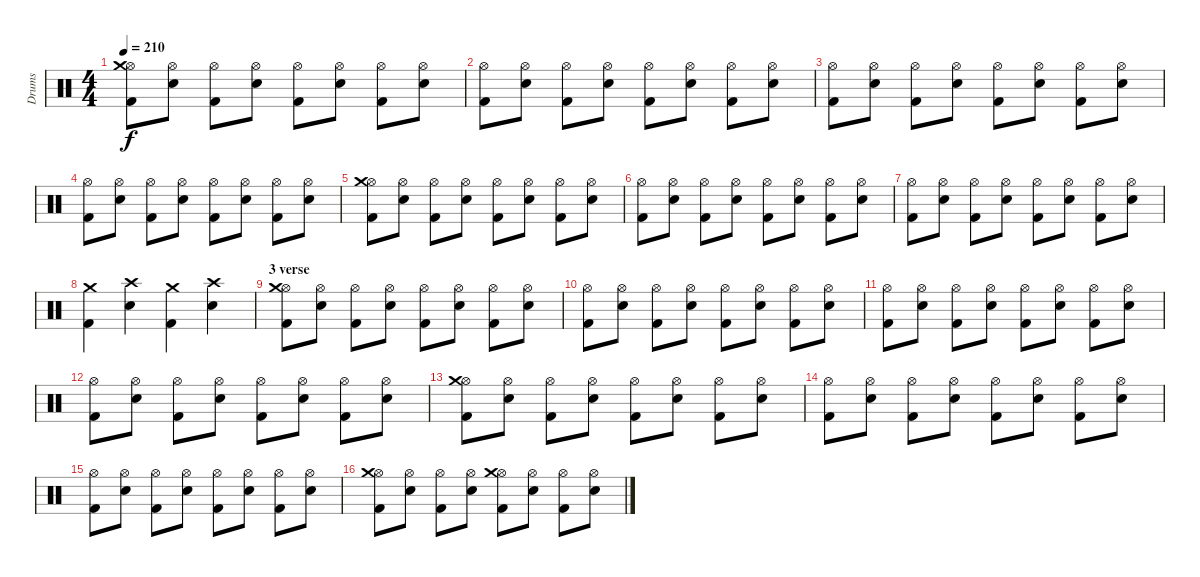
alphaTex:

\track ("Drums" "Drums") {instrument percussion}
\staff {score}
\articulation defaults
\ts (4 4)
\tempo 210
\clef neutral
\ks c
("Hi-Hat (open)" "Crash medium (hit)" "Kick (hit) 2").8{dy f} ("Hi-Hat (open)" "Electric Snare (hit)").8 ("Hi-Hat (open)" "Kick (hit) 2").8 ("Hi-Hat (open)" "Electric Snare (hit)").8 ("Hi-Hat (open)" "Kick (hit) 2").8 ("Hi-Hat (open)" "Electric Snare (hit)").8 ("Hi-Hat (open)" "Kick (hit) 2").8 ("Hi-Hat (open)" "Electric Snare (hit)").8 |
("Hi-Hat (open)" "Kick (hit) 2").8 ("Hi-Hat (open)" "Electric Snare (hit)").8 ("Hi-Hat (open)" "Kick (hit) 2").8 ("Hi-Hat (open)" "Electric Snare (hit)").8 ("Hi-Hat (open)" "Kick (hit) 2").8 ("Hi-Hat (open)" "Electric Snare (hit)").8 ("Hi-Hat (open)" "Kick (hit) 2").8 ("Hi-Hat (open)" "Electric Snare (hit)").8 |
("Hi-Hat (open)" "Kick (hit) 2").8 ("Hi-Hat (open)" "Electric Snare (hit)").8 ("Hi-Hat (open)" "Kick (hit) 2").8 ("Hi-Hat (open)" "Electric Snare (hit)").8 ("Hi-Hat (open)" "Kick (hit) 2").8 ("Hi-Hat (open)" "Electric Snare (hit)").8 ("Hi-Hat (open)" "Kick (hit) 2").8 ("Hi-Hat (open)" "Electric Snare (hit)").8 |
("Hi-Hat (open)" "Kick (hit) 2").8 ("Hi-Hat (open)" "Electric Snare (hit)").8 ("Hi-Hat (open)" "Kick (hit) 2").8 ("Hi-Hat (open)" "Electric Snare (hit)").8 ("Hi-Hat (open)" "Kick (hit) 2").8 ("Hi-Hat (open)" "Electric Snare (hit)").8 ("Hi-Hat (open)" "Kick (hit) 2").8 ("Hi-Hat (open)" "Electric Snare (hit)").8 |
("Hi-Hat (open)" "Crash medium (hit)" "Kick (hit) 2").8 ("Hi-Hat (open)" "Electric Snare (hit)").8 ("Hi-Hat (open)" "Kick (hit) 2").8 ("Hi-Hat (open)" "Electric Snare (hit)").8 ("Hi-Hat (open)" "Kick (hit) 2").8 ("Hi-Hat (open)" "Electric Snare (hit)").8 ("Hi-Hat (open)" "Kick (hit) 2").8 ("Hi-Hat (open)" "Electric Snare (hit)").8 |
("Hi-Hat (open)" "Kick (hit) 2").8 ("Hi-Hat (open)" "Electric Snare (hit)").8 ("Hi-Hat (open)" "Kick (hit) 2").8 ("Hi-Hat (open)" "Electric Snare (hit)").8 ("Hi-Hat (open)" "Kick (hit) 2").8 ("Hi-Hat (open)" "Electric Snare (hit)").8 ("Hi-Hat (open)" "Kick (hit) 2").8 ("Hi-Hat (open)" "Electric Snare (hit)").8 |
("Hi-Hat (open)" "Kick (hit) 2").8 ("Hi-Hat (open)" "Electric Snare (hit)").8 ("Hi-Hat (open)" "Kick (hit) 2").8 ("Hi-Hat (open)" "Electric Snare (hit)").8 ("Hi-Hat (open)" "Kick (hit) 2").8 ("Hi-Hat (open)" "Electric Snare (hit)").8 ("Hi-Hat (open)" "Kick (hit) 2").8 ("Hi-Hat (open)" "Electric Snare (hit)").8 |
("Crash medium (hit)" "Kick (hit) 2").4 ("Crash high (hit)" "Electric Snare (hit)").4 ("Crash medium (hit)" "Kick (hit) 2").4 ("Crash high (hit)" "Electric Snare (hit)").4 |
\section ("" "3 verse")
("Hi-Hat (open)" "Crash medium (hit)" "Kick (hit) 2").8 ("Hi-Hat (open)" "Electric Snare (hit)").8 ("Hi-Hat (open)" "Kick (hit) 2").8 ("Hi-Hat (open)" "Electric Snare (hit)").8 ("Hi-Hat (open)" "Kick (hit) 2").8 ("Hi-Hat (open)" "Electric Snare (hit)").8 ("Hi-Hat (open)" "Kick (hit) 2").8 ("Hi-Hat (open)" "Electric Snare (hit)").8 |
("Hi-Hat (open)" "Kick (hit) 2").8 ("Hi-Hat (open)" "Electric Snare (hit)").8 ("Hi-Hat (open)" "Kick (hit) 2").8 ("Hi-Hat (open)" "Electric Snare (hit)").8 ("Hi-Hat (open)" "Kick (hit) 2").8 ("Hi-Hat (open)" "Electric Snare (hit)").8 ("Hi-Hat (open)" "Kick (hit) 2").8 ("Hi-Hat (open)" "Electric Snare (hit)").8 |
("Hi-Hat (open)" "Kick (hit) 2").8 ("Hi-Hat (open)" "Electric Snare (hit)").8 ("Hi-Hat (open)" "Kick (hit) 2").8 ("Hi-Hat (open)" "Electric Snare (hit)").8 ("Hi-Hat (open)" "Kick (hit) 2").8 ("Hi-Hat (open)" "Electric Snare (hit)").8 ("Hi-Hat (open)" "Kick (hit) 2").8 ("Hi-Hat (open)" "Electric Snare (hit)").8 |
("Hi-Hat (open)" "Kick (hit) 2").8 ("Hi-Hat (open)" "Electric Snare (hit)").8 ("Hi-Hat (open)" "Kick (hit) 2").8 ("Hi-Hat (open)" "Electric Snare (hit)").8 ("Hi-Hat (open)" "Kick (hit) 2").8 ("Hi-Hat (open)" "Electric Snare (hit)").8 ("Hi-Hat (open)" "Kick (hit) 2").8 ("Hi-Hat (open)" "Electric Snare (hit)").8 |
("Hi-Hat (open)" "Crash medium (hit)" "Kick (hit) 2").8 ("Hi-Hat (open)" "Electric Snare (hit)").8 ("Hi-Hat (open)" "Kick (hit) 2").8 ("Hi-Hat (open)" "Electric Snare (hit)").8 ("Hi-Hat (open)" "Kick (hit) 2").8 ("Hi-Hat (open)" "Electric Snare (hit)").8 ("Hi-Hat (open)" "Kick (hit) 2").8 ("Hi-Hat (open)" "Electric Snare (hit)").8 |
("Hi-Hat (open)" "Kick (hit) 2").8 ("Hi-Hat (open)" "Electric Snare (hit)").8 ("Hi-Hat (open)" "Kick (hit) 2").8 ("Hi-Hat (open)" "Electric Snare (hit)").8 ("Hi-Hat (open)" "Kick (hit) 2").8 ("Hi-Hat (open)" "Electric Snare (hit)").8 ("Hi-Hat (open)" "Kick (hit) 2").8 ("Hi-Hat (open)" "Electric Snare (hit)").8 |
("Hi-Hat (open)" "Kick (hit) 2").8 ("Hi-Hat (open)" "Electric Snare (hit)").8 ("Hi-Hat (open)" "Kick (hit) 2").8 ("Hi-Hat (open)" "Electric Snare (hit)").8 ("Hi-Hat (open)" "Kick (hit) 2").8 ("Hi-Hat (open)" "Electric Snare (hit)").8 ("Hi-Hat (open)" "Kick (hit) 2").8 ("Hi-Hat (open)" "Electric Snare (hit)").8 |
("Hi-Hat (open)" "Crash medium (hit)" "Kick (hit) 2").8 ("Hi-Hat (open)" "Electric Snare (hit)").8 ("Hi-Hat (open)" "Kick (hit) 2").8 ("Hi-Hat (open)" "Electric Snare (hit)").8 ("Hi-Hat (open)" "Crash medium (hit)" "Kick (hit) 2").8 ("Hi-Hat (open)" "Electric Snare (hit)").8 ("Hi-Hat (open)" "Kick (hit) 2").8 ("Hi-Hat (open)" "Electric Snare (hit)").8
